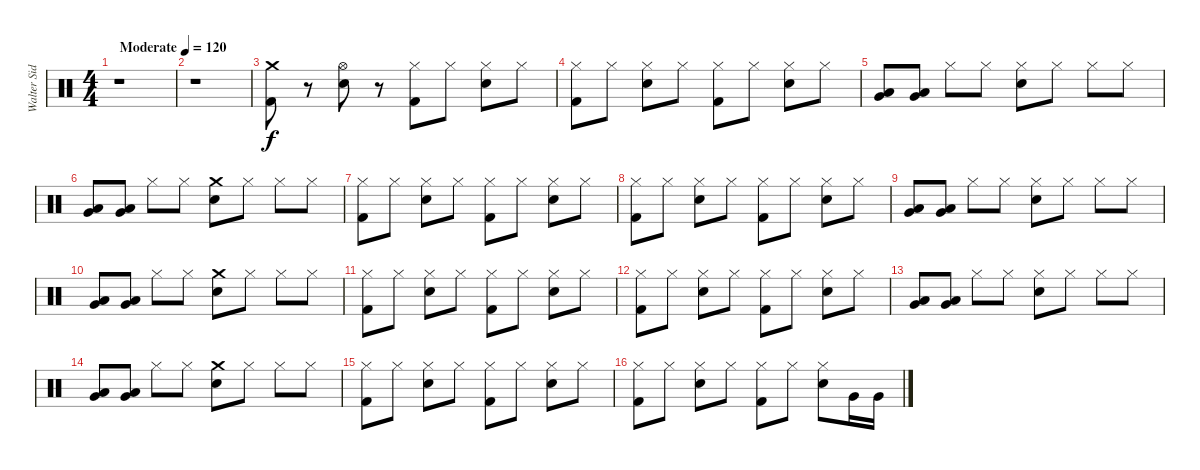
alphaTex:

\track ("Walter Sidotti" "Walter Sid") {instrument percussion}
\staff {score}
\articulation defaults
\ts (4 4)
\tempo (120 "Moderate")
\clef neutral
\ks c
r.1{dy f} |
r.1 |
("Kick (hit) 2" "Crash medium (hit)").8 r.8 ("Electric Snare (hit)" "Hi-Hat (open)").8 r.8 ("Kick (hit) 2" "Hi-Hat (closed)").8 "Hi-Hat (closed)".8 ("Electric Snare (hit)" "Hi-Hat (closed)").8 "Hi-Hat (closed)".8 |
("Kick (hit) 2" "Hi-Hat (closed)").8 "Hi-Hat (closed)".8 ("Electric Snare (hit)" "Hi-Hat (closed)").8 "Hi-Hat (closed)".8 ("Kick (hit) 2" "Hi-Hat (closed)").8 "Hi-Hat (closed)".8 ("Electric Snare (hit)" "Hi-Hat (closed)").8 "Hi-Hat (closed)".8 |
("Very Low Tom (hit)" "Low Tom (hit)").8 ("Very Low Tom (hit)" "Low Tom (hit)").8 "Hi-Hat (closed)".8 "Hi-Hat (closed)".8 ("Hi-Hat (closed)" "Electric Snare (hit)").8 "Hi-Hat (closed)".8 "Hi-Hat (closed)".8 "Hi-Hat (closed)".8 |
("Very Low Tom (hit)" "Low Tom (hit)").8 ("Very Low Tom (hit)" "Low Tom (hit)").8 "Hi-Hat (closed)".8 "Hi-Hat (closed)".8 ("Crash medium (hit)" "Electric Snare (hit)").8 "Hi-Hat (closed)".8 "Hi-Hat (closed)".8 "Hi-Hat (closed)".8 |
("Kick (hit) 2" "Hi-Hat (closed)").8 "Hi-Hat (closed)".8 ("Electric Snare (hit)" "Hi-Hat (closed)").8 "Hi-Hat (closed)".8 ("Kick (hit) 2" "Hi-Hat (closed)").8 "Hi-Hat (closed)".8 ("Electric Snare (hit)" "Hi-Hat (closed)").8 "Hi-Hat (closed)".8 |
("Kick (hit) 2" "Hi-Hat (closed)").8 "Hi-Hat (closed)".8 ("Electric Snare (hit)" "Hi-Hat (closed)").8 "Hi-Hat (closed)".8 ("Kick (hit) 2" "Hi-Hat (closed)").8 "Hi-Hat (closed)".8 ("Electric Snare (hit)" "Hi-Hat (closed)").8 "Hi-Hat (closed)".8 |
("Very Low Tom (hit)" "Low Tom (hit)").8 ("Very Low Tom (hit)" "Low Tom (hit)").8 "Hi-Hat (closed)".8 "Hi-Hat (closed)".8 ("Hi-Hat (closed)" "Electric Snare (hit)").8 "Hi-Hat (closed)".8 "Hi-Hat (closed)".8 "Hi-Hat (closed)".8 |
("Very Low Tom (hit)" "Low Tom (hit)").8 ("Very Low Tom (hit)" "Low Tom (hit)").8 "Hi-Hat (closed)".8 "Hi-Hat (closed)".8 ("Crash medium (hit)" "Electric Snare (hit)").8 "Hi-Hat (closed)".8 "Hi-Hat (closed)".8 "Hi-Hat (closed)".8 |
("Kick (hit) 2" "Hi-Hat (closed)").8 "Hi-Hat (closed)".8 ("Electric Snare (hit)" "Hi-Hat (closed)").8 "Hi-Hat (closed)".8 ("Kick (hit) 2" "Hi-Hat (closed)").8 "Hi-Hat (closed)".8 ("Electric Snare (hit)" "Hi-Hat (closed)").8 "Hi-Hat (closed)".8 |
("Kick (hit) 2" "Hi-Hat (closed)").8 "Hi-Hat (closed)".8 ("Electric Snare (hit)" "Hi-Hat (closed)").8 "Hi-Hat (closed)".8 ("Kick (hit) 2" "Hi-Hat (closed)").8 "Hi-Hat (closed)".8 ("Electric Snare (hit)" "Hi-Hat (closed)").8 "Hi-Hat (closed)".8 |
("Very Low Tom (hit)" "Low Tom (hit)").8 ("Very Low Tom (hit)" "Low Tom (hit)").8 "Hi-Hat (closed)".8 "Hi-Hat (closed)".8 ("Hi-Hat (closed)" "Electric Snare (hit)").8 "Hi-Hat (closed)".8 "Hi-Hat (closed)".8 "Hi-Hat (closed)".8 |
("Very Low Tom (hit)" "Low Tom (hit)").8 ("Very Low Tom (hit)" "Low Tom (hit)").8 "Hi-Hat (closed)".8 "Hi-Hat (closed)".8 ("Crash medium (hit)" "Electric Snare (hit)").8 "Hi-Hat (closed)".8 "Hi-Hat (closed)".8 "Hi-Hat (closed)".8 |
("Kick (hit) 2" "Hi-Hat (closed)").8 "Hi-Hat (closed)".8 ("Electric Snare (hit)" "Hi-Hat (closed)").8 "Hi-Hat (closed)".8 ("Kick (hit) 2" "Hi-Hat (closed)").8 "Hi-Hat (closed)".8 ("Electric Snare (hit)" "Hi-Hat (closed)").8 "Hi-Hat (closed)".8 |
("Kick (hit) 2" "Hi-Hat (closed)").8 "Hi-Hat (closed)".8 ("Electric Snare (hit)" "Hi-Hat (closed)").8 "Hi-Hat (closed)".8 ("Kick (hit) 2" "Hi-Hat (closed)").8 "Hi-Hat (closed)".8 ("Electric Snare (hit)" "Hi-Hat (closed)").8 "Very Low Tom (hit)".16 "Very Low Tom (hit)".16
